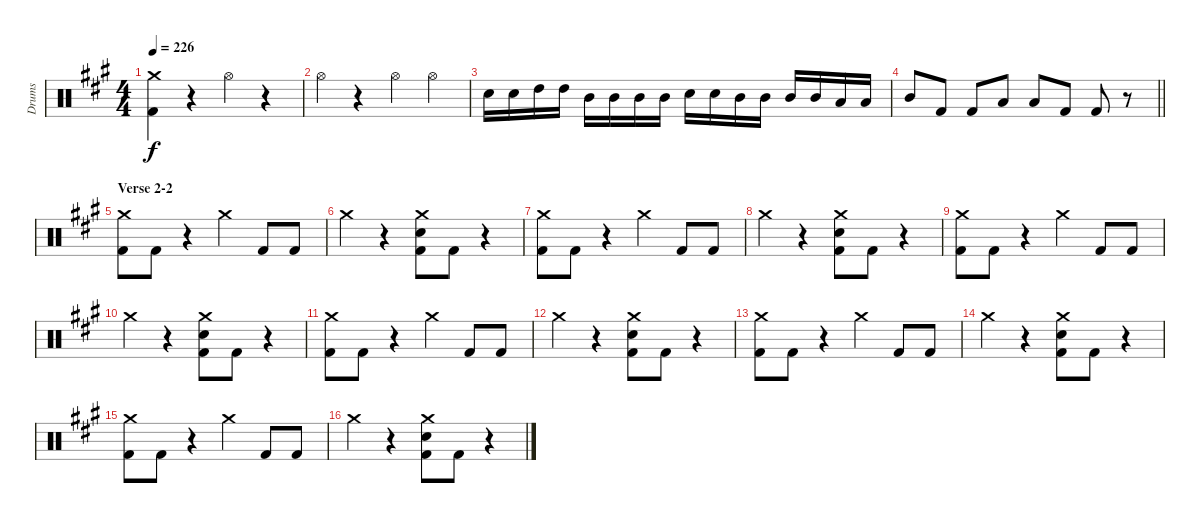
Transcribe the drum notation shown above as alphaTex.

\track ("Drums" "Drums") {instrument percussion}
\staff {score}
\articulation defaults
\ts (4 4)
\tempo 226
\clef neutral
\ks a
("Crash medium (hit)" "Kick (hit) 2").4{dy f} r.4 "Hi-Hat (open)".4 r.4 |
"Hi-Hat (open)".4 r.4 "Hi-Hat (open)".4 "Hi-Hat (open)".4 |
"Snare (hit) 2".16 "Snare (hit) 2".16 "High Tom (hit)".16 "High Tom (hit)".16 "Mid Tom (hit)".16 "Mid Tom (hit)".16 "Mid Tom (hit)".16 "Mid Tom (hit)".16 "Snare (hit) 2".16 "Snare (hit) 2".16 "Mid Tom (hit)".16 "Mid Tom (hit)".16 "Mid Tom (hit)".16 "Mid Tom (hit)".16 "Low Tom (hit)".16 "Low Tom (hit)".16 |
\barLineRight lightlight "Mid Tom (hit)".8 "Kick (hit) 2".8 "Kick (hit) 2".8 "Low Tom (hit)".8 "Low Tom (hit)".8 "Kick (hit) 2".8 "Kick (hit) 2".8
r.8 |
\section ("" "Verse 2-2")
("Crash medium (hit)" "Kick (hit) 2").8 "Kick (hit) 2".8 r.4 "Crash medium (hit)".4 "Kick (hit) 2".8 "Kick (hit) 2".8 |
"Crash medium (hit)".4 r.4 ("Crash medium (hit)" "Snare (hit) 2" "Kick (hit) 2").8 "Kick (hit) 2".8 r.4 |
("Crash medium (hit)" "Kick (hit) 2").8 "Kick (hit) 2".8 r.4 "Crash medium (hit)".4 "Kick (hit) 2".8 "Kick (hit) 2".8 |
"Crash medium (hit)".4 r.4 ("Crash medium (hit)" "Snare (hit) 2" "Kick (hit) 2").8 "Kick (hit) 2".8 r.4 |
("Crash medium (hit)" "Kick (hit) 2").8 "Kick (hit) 2".8 r.4 "Crash medium (hit)".4 "Kick (hit) 2".8 "Kick (hit) 2".8 |
"Crash medium (hit)".4 r.4 ("Crash medium (hit)" "Snare (hit) 2" "Kick (hit) 2").8 "Kick (hit) 2".8 r.4 |
("Crash medium (hit)" "Kick (hit) 2").8 "Kick (hit) 2".8 r.4 "Crash medium (hit)".4 "Kick (hit) 2".8 "Kick (hit) 2".8 |
"Crash medium (hit)".4 r.4 ("Crash medium (hit)" "Snare (hit) 2" "Kick (hit) 2").8 "Kick (hit) 2".8 r.4 |
("Crash medium (hit)" "Kick (hit) 2").8 "Kick (hit) 2".8 r.4 "Crash medium (hit)".4 "Kick (hit) 2".8 "Kick (hit) 2".8 |
"Crash medium (hit)".4 r.4 ("Crash medium (hit)" "Snare (hit) 2" "Kick (hit) 2").8 "Kick (hit) 2".8 r.4 |
("Crash medium (hit)" "Kick (hit) 2").8 "Kick (hit) 2".8 r.4 "Crash medium (hit)".4 "Kick (hit) 2".8 "Kick (hit) 2".8 |
"Crash medium (hit)".4 r.4 ("Crash medium (hit)" "Snare (hit) 2" "Kick (hit) 2").8 "Kick (hit) 2".8 r.4
